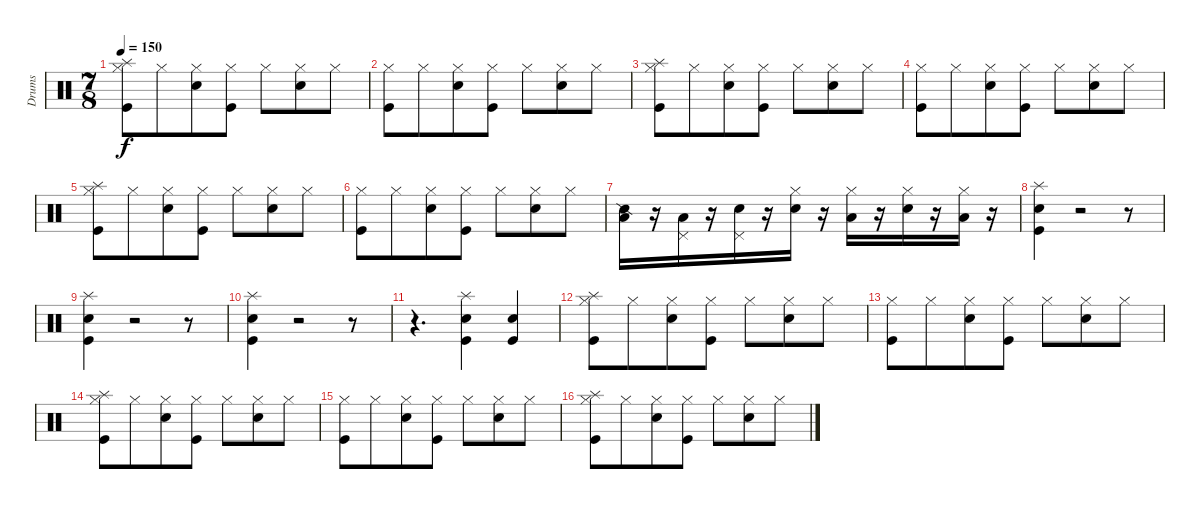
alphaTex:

\track ("Drums" "Drums") {instrument percussion}
\staff {score}
\articulation defaults
\ts (7 8)
\tempo 150
\clef neutral
\ks c
("Splash (hit)" "Kick (hit)" "Hi-Hat (closed)").8{dy f} "Hi-Hat (closed)".8 ("Snare (hit) 2" "Hi-Hat (closed)").8 ("Kick (hit)" "Hi-Hat (closed)").8 "Hi-Hat (closed)".8 ("Snare (hit) 2" "Hi-Hat (closed)").8 "Hi-Hat (closed)".8 |
("Kick (hit)" "Hi-Hat (closed)").8 "Hi-Hat (closed)".8 ("Snare (hit) 2" "Hi-Hat (closed)").8 ("Kick (hit)" "Hi-Hat (closed)").8 "Hi-Hat (closed)".8 ("Snare (hit) 2" "Hi-Hat (closed)").8 "Hi-Hat (closed)".8 |
("Splash (hit)" "Kick (hit)" "Hi-Hat (closed)").8 "Hi-Hat (closed)".8 ("Snare (hit) 2" "Hi-Hat (closed)").8 ("Kick (hit)" "Hi-Hat (closed)").8 "Hi-Hat (closed)".8 ("Snare (hit) 2" "Hi-Hat (closed)").8 "Hi-Hat (closed)".8 |
("Kick (hit)" "Hi-Hat (closed)").8 "Hi-Hat (closed)".8 ("Snare (hit) 2" "Hi-Hat (closed)").8 ("Kick (hit)" "Hi-Hat (closed)").8 "Hi-Hat (closed)".8 ("Snare (hit) 2" "Hi-Hat (closed)").8 "Hi-Hat (closed)".8 |
("Splash (hit)" "Kick (hit)" "Hi-Hat (closed)").8 "Hi-Hat (closed)".8 ("Snare (hit) 2" "Hi-Hat (closed)").8 ("Kick (hit)" "Hi-Hat (closed)").8 "Hi-Hat (closed)".8 ("Snare (hit) 2" "Hi-Hat (closed)").8 "Hi-Hat (closed)".8 |
("Kick (hit)" "Hi-Hat (closed)").8 "Hi-Hat (closed)".8 ("Snare (hit) 2" "Hi-Hat (closed)").8 ("Kick (hit)" "Hi-Hat (closed)").8 "Hi-Hat (closed)".8 ("Snare (hit) 2" "Hi-Hat (closed)").8 "Hi-Hat (closed)".8 |
("Low Tom (hit)" "Snare (side stick) 2").16 r.16 ("Pedal Hi-Hat (hit)" "Low Tom (hit)").16 r.16 ("Pedal Hi-Hat (hit)" "Snare (hit) 2").16 r.16 ("Hi-Hat (closed)" "Snare (hit) 2").16 r.16 ("Hi-Hat (closed)" "Low Tom (hit)").16 r.16 ("Hi-Hat (closed)" "Snare (hit) 2").16 r.16 ("Hi-Hat (closed)" "Low Tom (hit)").16 r.16 |
("Splash (hit)" "Snare (hit) 2" "Kick (hit)").4 r.2 r.8 |
("Splash (hit)" "Snare (hit) 2" "Kick (hit)").4 r.2 r.8 |
("Splash (hit)" "Snare (hit) 2" "Kick (hit)").4 r.2 r.8 |
r.4{d} ("Splash (hit)" "Snare (hit) 2" "Kick (hit)").4 ("Snare (hit) 2" "Kick (hit)").4 |
("Splash (hit)" "Kick (hit)" "Hi-Hat (closed)").8 "Hi-Hat (closed)".8 ("Snare (hit) 2" "Hi-Hat (closed)").8 ("Kick (hit)" "Hi-Hat (closed)").8 "Hi-Hat (closed)".8 ("Snare (hit) 2" "Hi-Hat (closed)").8 "Hi-Hat (closed)".8 |
("Kick (hit)" "Hi-Hat (closed)").8 "Hi-Hat (closed)".8 ("Snare (hit) 2" "Hi-Hat (closed)").8 ("Kick (hit)" "Hi-Hat (closed)").8 "Hi-Hat (closed)".8 ("Snare (hit) 2" "Hi-Hat (closed)").8 "Hi-Hat (closed)".8 |
("Splash (hit)" "Kick (hit)" "Hi-Hat (closed)").8 "Hi-Hat (closed)".8 ("Snare (hit) 2" "Hi-Hat (closed)").8 ("Kick (hit)" "Hi-Hat (closed)").8 "Hi-Hat (closed)".8 ("Snare (hit) 2" "Hi-Hat (closed)").8 "Hi-Hat (closed)".8 |
("Kick (hit)" "Hi-Hat (closed)").8 "Hi-Hat (closed)".8 ("Snare (hit) 2" "Hi-Hat (closed)").8 ("Kick (hit)" "Hi-Hat (closed)").8 "Hi-Hat (closed)".8 ("Snare (hit) 2" "Hi-Hat (closed)").8 "Hi-Hat (closed)".8 |
("Splash (hit)" "Kick (hit)" "Hi-Hat (closed)").8 "Hi-Hat (closed)".8 ("Snare (hit) 2" "Hi-Hat (closed)").8 ("Kick (hit)" "Hi-Hat (closed)").8 "Hi-Hat (closed)".8 ("Snare (hit) 2" "Hi-Hat (closed)").8 "Hi-Hat (closed)".8
